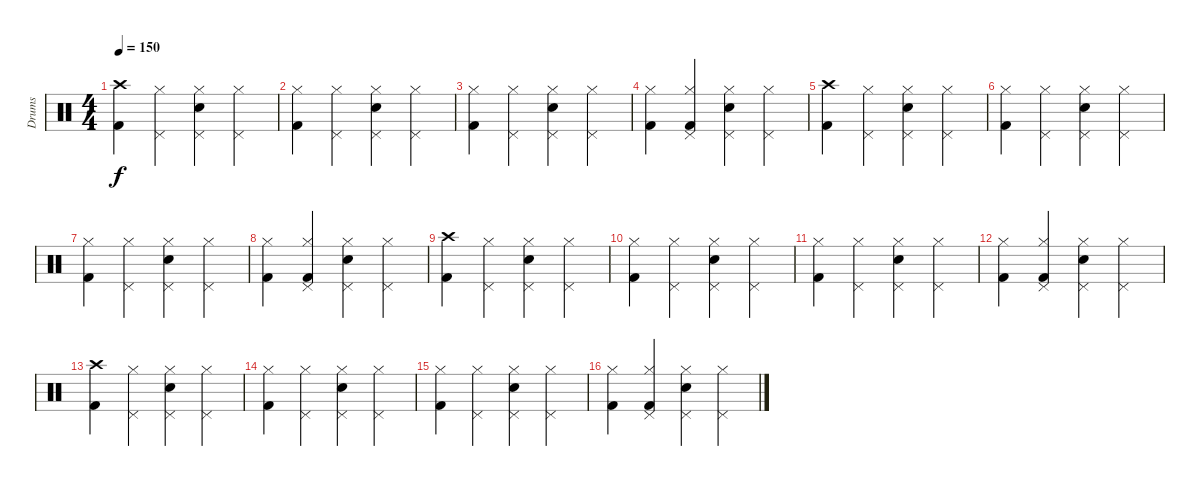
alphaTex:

\track ("Drums" "Drums") {instrument percussion}
\staff {score}
\articulation defaults
\ts (4 4)
\tempo 150
\clef neutral
\ks c
("Crash high (hit)" "Kick (hit) 2").4{dy f} ("Hi-Hat (closed)" "Pedal Hi-Hat (hit)").4 ("Hi-Hat (closed)" "Pedal Hi-Hat (hit)" "Electric Snare (hit)").4 ("Hi-Hat (closed)" "Pedal Hi-Hat (hit)").4 |
("Hi-Hat (closed)" "Kick (hit) 2").4 ("Hi-Hat (closed)" "Pedal Hi-Hat (hit)").4 ("Hi-Hat (closed)" "Pedal Hi-Hat (hit)" "Electric Snare (hit)").4 ("Hi-Hat (closed)" "Pedal Hi-Hat (hit)").4 |
("Hi-Hat (closed)" "Kick (hit) 2").4 ("Hi-Hat (closed)" "Pedal Hi-Hat (hit)").4 ("Hi-Hat (closed)" "Pedal Hi-Hat (hit)" "Electric Snare (hit)").4 ("Hi-Hat (closed)" "Pedal Hi-Hat (hit)").4 |
("Hi-Hat (closed)" "Kick (hit) 2").4 ("Hi-Hat (closed)" "Pedal Hi-Hat (hit)" "Kick (hit) 2").4 ("Hi-Hat (closed)" "Pedal Hi-Hat (hit)" "Electric Snare (hit)").4 ("Hi-Hat (closed)" "Pedal Hi-Hat (hit)").4 |
("Crash high (hit)" "Kick (hit) 2").4 ("Hi-Hat (closed)" "Pedal Hi-Hat (hit)").4 ("Hi-Hat (closed)" "Pedal Hi-Hat (hit)" "Electric Snare (hit)").4 ("Hi-Hat (closed)" "Pedal Hi-Hat (hit)").4 |
("Hi-Hat (closed)" "Kick (hit) 2").4 ("Hi-Hat (closed)" "Pedal Hi-Hat (hit)").4 ("Hi-Hat (closed)" "Pedal Hi-Hat (hit)" "Electric Snare (hit)").4 ("Hi-Hat (closed)" "Pedal Hi-Hat (hit)").4 |
("Hi-Hat (closed)" "Kick (hit) 2").4 ("Hi-Hat (closed)" "Pedal Hi-Hat (hit)").4 ("Hi-Hat (closed)" "Pedal Hi-Hat (hit)" "Electric Snare (hit)").4 ("Hi-Hat (closed)" "Pedal Hi-Hat (hit)").4 |
("Hi-Hat (closed)" "Kick (hit) 2").4 ("Hi-Hat (closed)" "Pedal Hi-Hat (hit)" "Kick (hit) 2").4 ("Hi-Hat (closed)" "Pedal Hi-Hat (hit)" "Electric Snare (hit)").4 ("Hi-Hat (closed)" "Pedal Hi-Hat (hit)").4 |
("Crash high (hit)" "Kick (hit) 2").4 ("Hi-Hat (closed)" "Pedal Hi-Hat (hit)").4 ("Hi-Hat (closed)" "Pedal Hi-Hat (hit)" "Electric Snare (hit)").4 ("Hi-Hat (closed)" "Pedal Hi-Hat (hit)").4 |
("Hi-Hat (closed)" "Kick (hit) 2").4 ("Hi-Hat (closed)" "Pedal Hi-Hat (hit)").4 ("Hi-Hat (closed)" "Pedal Hi-Hat (hit)" "Electric Snare (hit)").4 ("Hi-Hat (closed)" "Pedal Hi-Hat (hit)").4 |
("Hi-Hat (closed)" "Kick (hit) 2").4 ("Hi-Hat (closed)" "Pedal Hi-Hat (hit)").4 ("Hi-Hat (closed)" "Pedal Hi-Hat (hit)" "Electric Snare (hit)").4 ("Hi-Hat (closed)" "Pedal Hi-Hat (hit)").4 |
("Hi-Hat (closed)" "Kick (hit) 2").4 ("Hi-Hat (closed)" "Pedal Hi-Hat (hit)" "Kick (hit) 2").4 ("Hi-Hat (closed)" "Pedal Hi-Hat (hit)" "Electric Snare (hit)").4 ("Hi-Hat (closed)" "Pedal Hi-Hat (hit)").4 |
("Crash high (hit)" "Kick (hit) 2").4 ("Hi-Hat (closed)" "Pedal Hi-Hat (hit)").4 ("Hi-Hat (closed)" "Pedal Hi-Hat (hit)" "Electric Snare (hit)").4 ("Hi-Hat (closed)" "Pedal Hi-Hat (hit)").4 |
("Hi-Hat (closed)" "Kick (hit) 2").4 ("Hi-Hat (closed)" "Pedal Hi-Hat (hit)").4 ("Hi-Hat (closed)" "Pedal Hi-Hat (hit)" "Electric Snare (hit)").4 ("Hi-Hat (closed)" "Pedal Hi-Hat (hit)").4 |
("Hi-Hat (closed)" "Kick (hit) 2").4 ("Hi-Hat (closed)" "Pedal Hi-Hat (hit)").4 ("Hi-Hat (closed)" "Pedal Hi-Hat (hit)" "Electric Snare (hit)").4 ("Hi-Hat (closed)" "Pedal Hi-Hat (hit)").4 |
("Hi-Hat (closed)" "Kick (hit) 2").4 ("Hi-Hat (closed)" "Pedal Hi-Hat (hit)" "Kick (hit) 2").4 ("Hi-Hat (closed)" "Pedal Hi-Hat (hit)" "Electric Snare (hit)").4 ("Hi-Hat (closed)" "Pedal Hi-Hat (hit)").4
